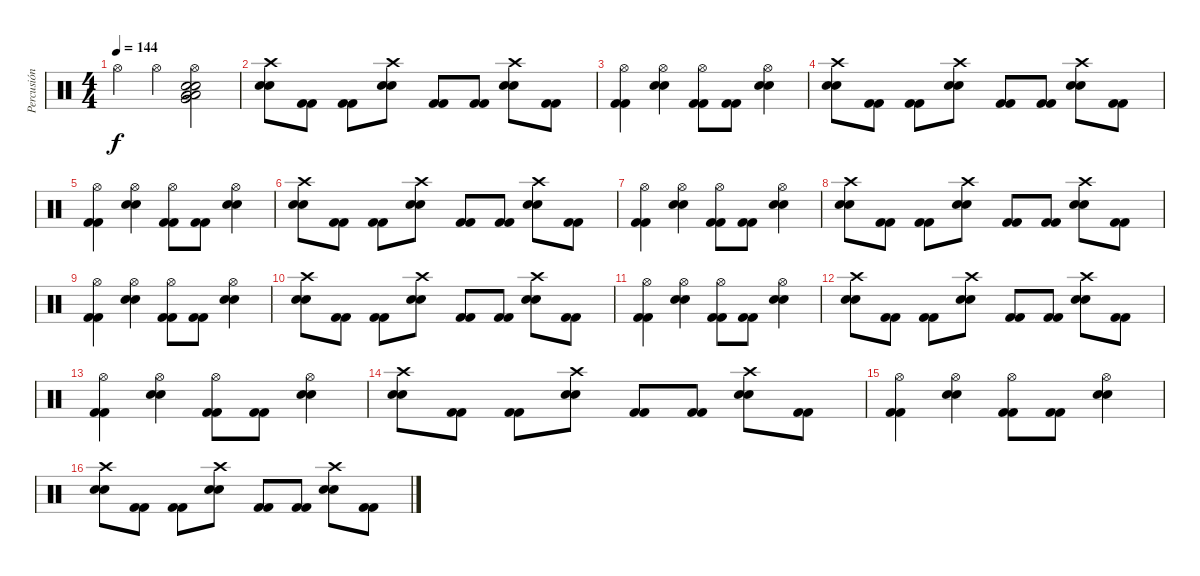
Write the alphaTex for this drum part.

\track ("Percusión" "Percusión") {instrument percussion}
\staff {score}
\articulation defaults
\ts (4 4)
\tempo 144
\clef neutral
\ks c "Hi-Hat (open)".4{dy f} "Hi-Hat (open)".4
("Hi-Hat (open)" "Snare (hit) 2" "Snare (hit) 2" "Low Tom (hit)" "Low Tom (hit)" "Very Low Tom (hit)").2 |
("Crash high (hit)" "Snare (hit) 2" "Snare (hit) 2").8 ("Kick (hit) 2" "Kick (hit) 2").8 ("Kick (hit) 2" "Kick (hit) 2").8 ("Crash high (hit)" "Snare (hit) 2" "Snare (hit) 2").8 ("Kick (hit) 2" "Kick (hit) 2").8 ("Kick (hit) 2" "Kick (hit) 2").8 ("Crash high (hit)" "Snare (hit) 2" "Snare (hit) 2").8 ("Kick (hit) 2" "Kick (hit) 2").8 |
("Hi-Hat (open)" "Kick (hit) 2" "Kick (hit) 2").4 ("Hi-Hat (open)" "Snare (hit) 2" "Snare (hit) 2").4 ("Hi-Hat (open)" "Kick (hit) 2" "Kick (hit) 2").8 ("Kick (hit) 2" "Kick (hit) 2").8 ("Hi-Hat (open)" "Snare (hit) 2" "Snare (hit) 2").4 |
("Crash high (hit)" "Snare (hit) 2" "Snare (hit) 2").8 ("Kick (hit) 2" "Kick (hit) 2").8 ("Kick (hit) 2" "Kick (hit) 2").8 ("Crash high (hit)" "Snare (hit) 2" "Snare (hit) 2").8 ("Kick (hit) 2" "Kick (hit) 2").8 ("Kick (hit) 2" "Kick (hit) 2").8 ("Crash high (hit)" "Snare (hit) 2" "Snare (hit) 2").8 ("Kick (hit) 2" "Kick (hit) 2").8 |
("Hi-Hat (open)" "Kick (hit) 2" "Kick (hit) 2").4 ("Hi-Hat (open)" "Snare (hit) 2" "Snare (hit) 2").4 ("Hi-Hat (open)" "Kick (hit) 2" "Kick (hit) 2").8 ("Kick (hit) 2" "Kick (hit) 2").8 ("Hi-Hat (open)" "Snare (hit) 2" "Snare (hit) 2").4 |
("Crash high (hit)" "Snare (hit) 2" "Snare (hit) 2").8 ("Kick (hit) 2" "Kick (hit) 2").8 ("Kick (hit) 2" "Kick (hit) 2").8 ("Crash high (hit)" "Snare (hit) 2" "Snare (hit) 2").8 ("Kick (hit) 2" "Kick (hit) 2").8 ("Kick (hit) 2" "Kick (hit) 2").8 ("Crash high (hit)" "Snare (hit) 2" "Snare (hit) 2").8 ("Kick (hit) 2" "Kick (hit) 2").8 |
("Hi-Hat (open)" "Kick (hit) 2" "Kick (hit) 2").4 ("Hi-Hat (open)" "Snare (hit) 2" "Snare (hit) 2").4 ("Hi-Hat (open)" "Kick (hit) 2" "Kick (hit) 2").8 ("Kick (hit) 2" "Kick (hit) 2").8 ("Hi-Hat (open)" "Snare (hit) 2" "Snare (hit) 2").4 |
("Crash high (hit)" "Snare (hit) 2" "Snare (hit) 2").8 ("Kick (hit) 2" "Kick (hit) 2").8 ("Kick (hit) 2" "Kick (hit) 2").8 ("Crash high (hit)" "Snare (hit) 2" "Snare (hit) 2").8 ("Kick (hit) 2" "Kick (hit) 2").8 ("Kick (hit) 2" "Kick (hit) 2").8 ("Crash high (hit)" "Snare (hit) 2" "Snare (hit) 2").8 ("Kick (hit) 2" "Kick (hit) 2").8 |
("Hi-Hat (open)" "Kick (hit) 2" "Kick (hit) 2").4 ("Hi-Hat (open)" "Snare (hit) 2" "Snare (hit) 2").4 ("Hi-Hat (open)" "Kick (hit) 2" "Kick (hit) 2").8 ("Kick (hit) 2" "Kick (hit) 2").8 ("Hi-Hat (open)" "Snare (hit) 2" "Snare (hit) 2").4 |
("Crash high (hit)" "Snare (hit) 2" "Snare (hit) 2").8 ("Kick (hit) 2" "Kick (hit) 2").8 ("Kick (hit) 2" "Kick (hit) 2").8 ("Crash high (hit)" "Snare (hit) 2" "Snare (hit) 2").8 ("Kick (hit) 2" "Kick (hit) 2").8 ("Kick (hit) 2" "Kick (hit) 2").8 ("Crash high (hit)" "Snare (hit) 2" "Snare (hit) 2").8 ("Kick (hit) 2" "Kick (hit) 2").8 |
("Hi-Hat (open)" "Kick (hit) 2" "Kick (hit) 2").4 ("Hi-Hat (open)" "Snare (hit) 2" "Snare (hit) 2").4 ("Hi-Hat (open)" "Kick (hit) 2" "Kick (hit) 2").8 ("Kick (hit) 2" "Kick (hit) 2").8 ("Hi-Hat (open)" "Snare (hit) 2" "Snare (hit) 2").4 |
("Crash high (hit)" "Snare (hit) 2" "Snare (hit) 2").8 ("Kick (hit) 2" "Kick (hit) 2").8 ("Kick (hit) 2" "Kick (hit) 2").8 ("Crash high (hit)" "Snare (hit) 2" "Snare (hit) 2").8 ("Kick (hit) 2" "Kick (hit) 2").8 ("Kick (hit) 2" "Kick (hit) 2").8 ("Crash high (hit)" "Snare (hit) 2" "Snare (hit) 2").8 ("Kick (hit) 2" "Kick (hit) 2").8 |
("Hi-Hat (open)" "Kick (hit) 2" "Kick (hit) 2").4 ("Hi-Hat (open)" "Snare (hit) 2" "Snare (hit) 2").4 ("Hi-Hat (open)" "Kick (hit) 2" "Kick (hit) 2").8 ("Kick (hit) 2" "Kick (hit) 2").8 ("Hi-Hat (open)" "Snare (hit) 2" "Snare (hit) 2").4 |
("Crash high (hit)" "Snare (hit) 2" "Snare (hit) 2").8 ("Kick (hit) 2" "Kick (hit) 2").8 ("Kick (hit) 2" "Kick (hit) 2").8 ("Crash high (hit)" "Snare (hit) 2" "Snare (hit) 2").8 ("Kick (hit) 2" "Kick (hit) 2").8 ("Kick (hit) 2" "Kick (hit) 2").8 ("Crash high (hit)" "Snare (hit) 2" "Snare (hit) 2").8 ("Kick (hit) 2" "Kick (hit) 2").8 |
("Hi-Hat (open)" "Kick (hit) 2" "Kick (hit) 2").4 ("Hi-Hat (open)" "Snare (hit) 2" "Snare (hit) 2").4 ("Hi-Hat (open)" "Kick (hit) 2" "Kick (hit) 2").8 ("Kick (hit) 2" "Kick (hit) 2").8 ("Hi-Hat (open)" "Snare (hit) 2" "Snare (hit) 2").4 |
("Crash high (hit)" "Snare (hit) 2" "Snare (hit) 2").8 ("Kick (hit) 2" "Kick (hit) 2").8 ("Kick (hit) 2" "Kick (hit) 2").8 ("Crash high (hit)" "Snare (hit) 2" "Snare (hit) 2").8 ("Kick (hit) 2" "Kick (hit) 2").8 ("Kick (hit) 2" "Kick (hit) 2").8 ("Crash high (hit)" "Snare (hit) 2" "Snare (hit) 2").8 ("Kick (hit) 2" "Kick (hit) 2").8
